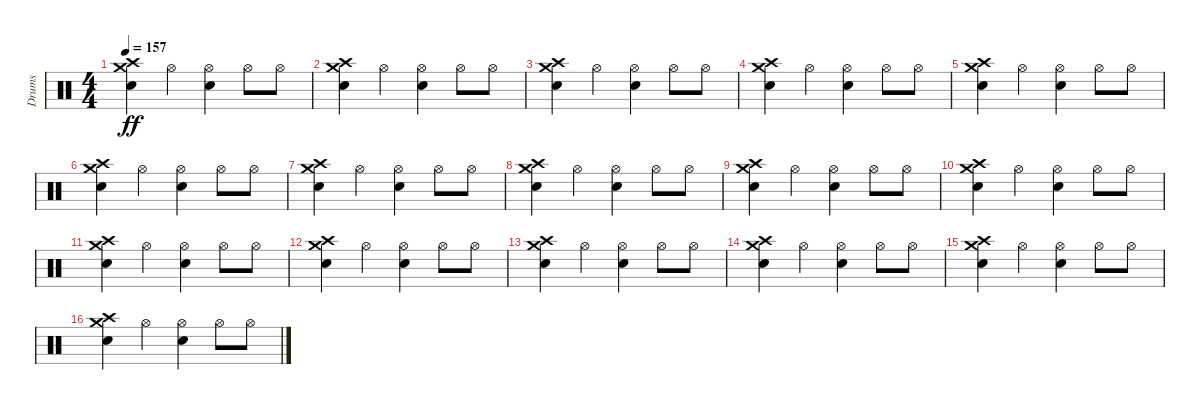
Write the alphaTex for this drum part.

\track ("Drums" "Drums") {instrument percussion}
\staff {score}
\articulation defaults
\ts (4 4)
\tempo 157
\clef neutral
\ks c
("Crash high (hit)" "Crash medium (hit)" "Electric Snare (hit)").4{dy ff} "Hi-Hat (open)".4 ("Electric Snare (hit)" "Hi-Hat (open)").4 "Hi-Hat (open)".8 "Hi-Hat (open)".8 |
("Crash high (hit)" "Crash medium (hit)" "Electric Snare (hit)").4 "Hi-Hat (open)".4 ("Electric Snare (hit)" "Hi-Hat (open)").4 "Hi-Hat (open)".8 "Hi-Hat (open)".8 |
("Crash high (hit)" "Crash medium (hit)" "Electric Snare (hit)").4 "Hi-Hat (open)".4 ("Electric Snare (hit)" "Hi-Hat (open)").4 "Hi-Hat (open)".8 "Hi-Hat (open)".8 |
("Crash high (hit)" "Crash medium (hit)" "Electric Snare (hit)").4 "Hi-Hat (open)".4 ("Electric Snare (hit)" "Hi-Hat (open)").4 "Hi-Hat (open)".8 "Hi-Hat (open)".8 |
("Crash high (hit)" "Crash medium (hit)" "Electric Snare (hit)").4 "Hi-Hat (open)".4 ("Electric Snare (hit)" "Hi-Hat (open)").4 "Hi-Hat (open)".8 "Hi-Hat (open)".8 |
("Crash high (hit)" "Crash medium (hit)" "Electric Snare (hit)").4 "Hi-Hat (open)".4 ("Electric Snare (hit)" "Hi-Hat (open)").4 "Hi-Hat (open)".8 "Hi-Hat (open)".8 |
("Crash high (hit)" "Crash medium (hit)" "Electric Snare (hit)").4 "Hi-Hat (open)".4 ("Electric Snare (hit)" "Hi-Hat (open)").4 "Hi-Hat (open)".8 "Hi-Hat (open)".8 |
("Crash high (hit)" "Crash medium (hit)" "Electric Snare (hit)").4 "Hi-Hat (open)".4 ("Electric Snare (hit)" "Hi-Hat (open)").4 "Hi-Hat (open)".8 "Hi-Hat (open)".8 |
("Crash high (hit)" "Crash medium (hit)" "Electric Snare (hit)").4 "Hi-Hat (open)".4 ("Electric Snare (hit)" "Hi-Hat (open)").4 "Hi-Hat (open)".8 "Hi-Hat (open)".8 |
("Crash high (hit)" "Crash medium (hit)" "Electric Snare (hit)").4 "Hi-Hat (open)".4 ("Electric Snare (hit)" "Hi-Hat (open)").4 "Hi-Hat (open)".8 "Hi-Hat (open)".8 |
("Crash high (hit)" "Crash medium (hit)" "Electric Snare (hit)").4 "Hi-Hat (open)".4 ("Electric Snare (hit)" "Hi-Hat (open)").4 "Hi-Hat (open)".8 "Hi-Hat (open)".8 |
("Crash high (hit)" "Crash medium (hit)" "Electric Snare (hit)").4 "Hi-Hat (open)".4 ("Electric Snare (hit)" "Hi-Hat (open)").4 "Hi-Hat (open)".8 "Hi-Hat (open)".8 |
("Crash high (hit)" "Crash medium (hit)" "Electric Snare (hit)").4 "Hi-Hat (open)".4 ("Electric Snare (hit)" "Hi-Hat (open)").4 "Hi-Hat (open)".8 "Hi-Hat (open)".8 |
("Crash high (hit)" "Crash medium (hit)" "Electric Snare (hit)").4 "Hi-Hat (open)".4 ("Electric Snare (hit)" "Hi-Hat (open)").4 "Hi-Hat (open)".8 "Hi-Hat (open)".8 |
("Crash high (hit)" "Crash medium (hit)" "Electric Snare (hit)").4 "Hi-Hat (open)".4 ("Electric Snare (hit)" "Hi-Hat (open)").4 "Hi-Hat (open)".8 "Hi-Hat (open)".8 |
("Crash high (hit)" "Crash medium (hit)" "Electric Snare (hit)").4 "Hi-Hat (open)".4 ("Electric Snare (hit)" "Hi-Hat (open)").4 "Hi-Hat (open)".8 "Hi-Hat (open)".8
